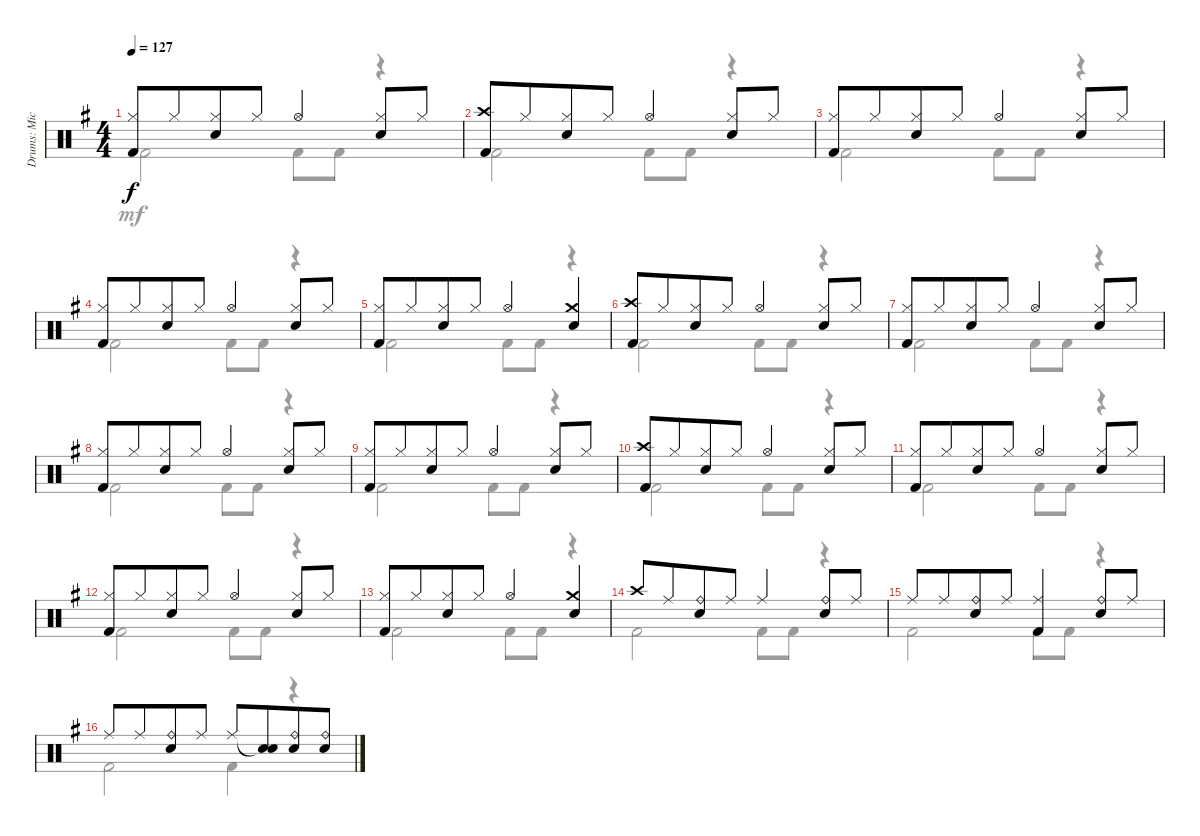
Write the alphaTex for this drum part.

\track ("Drums: Mick" "Drums: Mic") {instrument percussion}
\staff {score}
\articulation defaults
\voice
\ts (4 4)
\tempo 127
\clef neutral
\ks g
("Hi-Hat (closed)" "Kick (hit) 2").8{dy f} "Hi-Hat (closed)".8{beam merge} ("Hi-Hat (closed)" "Snare (hit) 2").8 "Hi-Hat (closed)".8 "Hi-Hat (open)".4{beam merge} ("Hi-Hat (closed)" "Snare (hit) 2").8 "Hi-Hat (closed)".8 |
("Crash high (hit)" "Kick (hit) 2").8 "Hi-Hat (closed)".8{beam merge} ("Hi-Hat (closed)" "Snare (hit) 2").8 "Hi-Hat (closed)".8 "Hi-Hat (open)".4{beam merge} ("Hi-Hat (closed)" "Snare (hit) 2").8 "Hi-Hat (closed)".8 |
("Hi-Hat (closed)" "Kick (hit) 2").8 "Hi-Hat (closed)".8{beam merge} ("Hi-Hat (closed)" "Snare (hit) 2").8 "Hi-Hat (closed)".8 "Hi-Hat (open)".4{beam merge} ("Hi-Hat (closed)" "Snare (hit) 2").8 "Hi-Hat (closed)".8 |
("Hi-Hat (closed)" "Kick (hit) 2").8 "Hi-Hat (closed)".8{beam merge} ("Hi-Hat (closed)" "Snare (hit) 2").8 "Hi-Hat (closed)".8 "Hi-Hat (open)".4{beam merge} ("Hi-Hat (closed)" "Snare (hit) 2").8 "Hi-Hat (closed)".8 |
("Hi-Hat (closed)" "Kick (hit) 2").8 "Hi-Hat (closed)".8{beam merge} ("Hi-Hat (closed)" "Snare (hit) 2").8 "Hi-Hat (closed)".8 "Hi-Hat (open)".4{beam merge} ("Crash medium (hit)" "Snare (hit) 2").4 |
("Crash high (hit)" "Kick (hit) 2").8 "Hi-Hat (closed)".8{beam merge} ("Hi-Hat (closed)" "Snare (hit) 2").8 "Hi-Hat (closed)".8 "Hi-Hat (open)".4{beam merge} ("Hi-Hat (closed)" "Snare (hit) 2").8 "Hi-Hat (closed)".8 |
("Hi-Hat (closed)" "Kick (hit) 2").8 "Hi-Hat (closed)".8{beam merge} ("Hi-Hat (closed)" "Snare (hit) 2").8 "Hi-Hat (closed)".8 "Hi-Hat (open)".4{beam merge} ("Hi-Hat (closed)" "Snare (hit) 2").8 "Hi-Hat (closed)".8 |
("Hi-Hat (closed)" "Kick (hit) 2").8 "Hi-Hat (closed)".8{beam merge} ("Hi-Hat (closed)" "Snare (hit) 2").8 "Hi-Hat (closed)".8 "Hi-Hat (open)".4{beam merge} ("Hi-Hat (closed)" "Snare (hit) 2").8 "Hi-Hat (closed)".8 |
("Hi-Hat (closed)" "Kick (hit) 2").8 "Hi-Hat (closed)".8{beam merge} ("Hi-Hat (closed)" "Snare (hit) 2").8 "Hi-Hat (closed)".8 "Hi-Hat (open)".4{beam merge} ("Hi-Hat (closed)" "Snare (hit) 2").8 "Hi-Hat (closed)".8 |
("Crash high (hit)" "Kick (hit) 2").8 "Hi-Hat (closed)".8{beam merge} ("Hi-Hat (closed)" "Snare (hit) 2").8 "Hi-Hat (closed)".8 "Hi-Hat (open)".4{beam merge} ("Hi-Hat (closed)" "Snare (hit) 2").8 "Hi-Hat (closed)".8 |
("Hi-Hat (closed)" "Kick (hit) 2").8 "Hi-Hat (closed)".8{beam merge} ("Hi-Hat (closed)" "Snare (hit) 2").8 "Hi-Hat (closed)".8 "Hi-Hat (open)".4{beam merge} ("Hi-Hat (closed)" "Snare (hit) 2").8 "Hi-Hat (closed)".8 |
("Hi-Hat (closed)" "Kick (hit) 2").8 "Hi-Hat (closed)".8{beam merge} ("Hi-Hat (closed)" "Snare (hit) 2").8 "Hi-Hat (closed)".8 "Hi-Hat (open)".4{beam merge} ("Hi-Hat (closed)" "Snare (hit) 2").8 "Hi-Hat (closed)".8 |
("Hi-Hat (closed)" "Kick (hit) 2").8 "Hi-Hat (closed)".8{beam merge} ("Hi-Hat (closed)" "Snare (hit) 2").8 "Hi-Hat (closed)".8 "Hi-Hat (open)".4{beam merge} ("Crash medium (hit)" "Snare (hit) 2").4 |
"Crash high (hit)".8 "Ride (middle)".8{beam merge} ("Ride (bell)" "Snare (hit) 2").8 "Ride (middle)".8 "Ride (middle)".4{beam merge} ("Ride (bell)" "Snare (hit) 2").8 "Ride (middle)".8 |
"Ride (middle)".8 "Ride (middle)".8{beam merge} ("Ride (bell)" "Snare (hit) 2").8 "Ride (middle)".8 ("Ride (middle)" "Kick (hit) 2").4{beam merge} ("Ride (bell)" "Snare (hit) 2").8 "Ride (middle)".8 |
"Ride (middle)".8 "Ride (middle)".8{beam merge} ("Ride (bell)" "Snare (hit) 2").8 "Ride (middle)".8 "Ride (middle)".8 ("Snare (hit)"{t} "Snare (hit) 2").8{beam merge} ("Ride (bell)" "Snare (hit) 2").8 ("Ride (bell)" "Snare (hit) 2").8
\voice
\clef neutral
\ottava regular
\simile none
\ks g "Kick (hit) 2".2{dy mf} "Kick (hit) 2".8 "Kick (hit) 2".8
r.4 |
"Kick (hit) 2".2 "Kick (hit) 2".8 "Kick (hit) 2".8 r.4 |
"Kick (hit) 2".2 "Kick (hit) 2".8 "Kick (hit) 2".8 r.4 |
"Kick (hit) 2".2 "Kick (hit) 2".8 "Kick (hit) 2".8 r.4 |
"Kick (hit) 2".2 "Kick (hit) 2".8 "Kick (hit) 2".8 r.4 |
"Kick (hit) 2".2 "Kick (hit) 2".8 "Kick (hit) 2".8 r.4 |
"Kick (hit) 2".2 "Kick (hit) 2".8 "Kick (hit) 2".8 r.4 |
"Kick (hit) 2".2 "Kick (hit) 2".8 "Kick (hit) 2".8 r.4 |
"Kick (hit) 2".2 "Kick (hit) 2".8 "Kick (hit) 2".8 r.4 |
"Kick (hit) 2".2 "Kick (hit) 2".8 "Kick (hit) 2".8 r.4 |
"Kick (hit) 2".2 "Kick (hit) 2".8 "Kick (hit) 2".8 r.4 |
"Kick (hit) 2".2 "Kick (hit) 2".8 "Kick (hit) 2".8 r.4 |
"Kick (hit) 2".2 "Kick (hit) 2".8 "Kick (hit) 2".8 r.4 |
"Kick (hit) 2".2 "Kick (hit) 2".8 "Kick (hit) 2".8 r.4 |
"Kick (hit) 2".2 "Kick (hit) 2".8 "Kick (hit) 2".8 r.4 |
"Kick (hit) 2".2 "Kick (hit) 2".4 r.4
